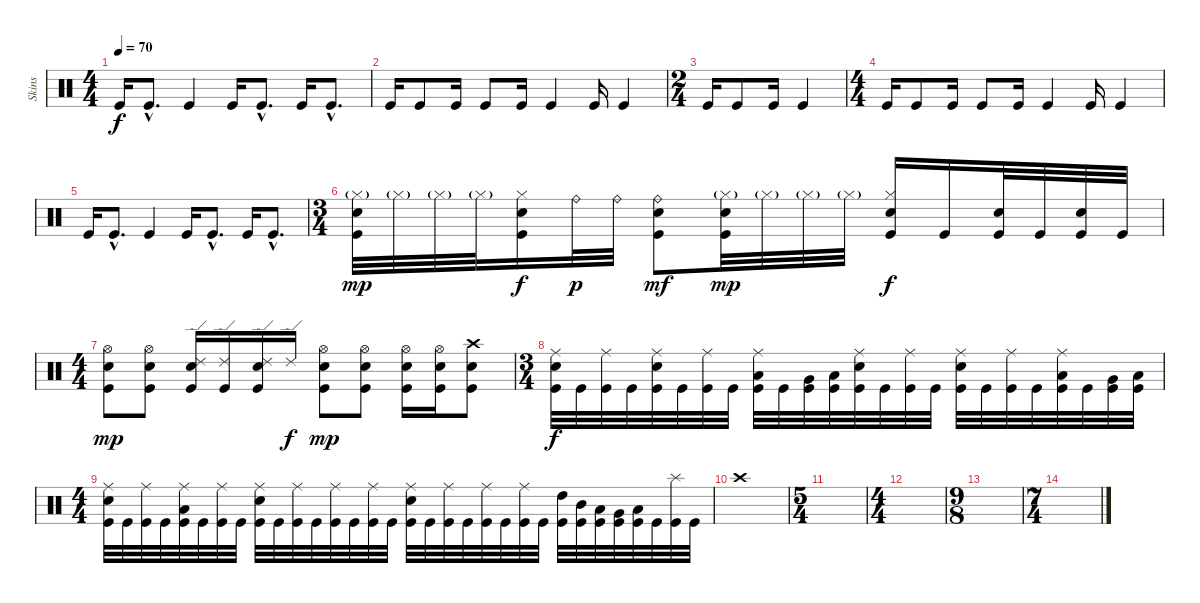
\track ("Skins" "Skins") {instrument percussion}
\staff {score}
\articulation defaults
\ts (4 4)
\tempo 70
\clef neutral
\ks c "Kick (hit)".16{dy f} "Kick (hit)"{hac}.8{d} "Kick (hit)".4 "Kick (hit)".16 "Kick (hit)"{hac}.8{d} "Kick (hit)".16 "Kick (hit)"{hac}.8{d}
|
"Kick (hit)".16 "Kick (hit)".8 "Kick (hit)".16 "Kick (hit)".8 "Kick (hit)".16 "Kick (hit)".4 "Kick (hit)".16 "Kick (hit)".4 |
\ts (2 4)
"Kick (hit)".16 "Kick (hit)".8 "Kick (hit)".16 "Kick (hit)".4 |
\ts (4 4)
"Kick (hit)".16 "Kick (hit)".8 "Kick (hit)".16 "Kick (hit)".8 "Kick (hit)".16 "Kick (hit)".4 "Kick (hit)".16 "Kick (hit)".4 |
"Kick (hit)".16 "Kick (hit)"{hac}.8{d} "Kick (hit)".4 "Kick (hit)".16 "Kick (hit)"{hac}.8{d} "Kick (hit)".16 "Kick (hit)"{hac}.8{d} |
\ts (3 4)
("Hi-Hat (closed)"{g} "Snare (hit) 2" "Kick (hit)").32{dy mp} "Hi-Hat (closed)"{g}.32 "Hi-Hat (closed)"{g}.32 "Hi-Hat (closed)"{g}.32 ("Hi-Hat (closed)" "Snare (hit) 2" "Kick (hit)").16{dy f} "Ride (bell)".32{dy p} "Ride (bell)".32 ("Ride (bell)" "Snare (hit) 2" "Kick (hit)").8{dy mf} ("Hi-Hat (closed)"{g} "Snare (hit) 2" "Kick (hit)").32{dy mp} "Hi-Hat (closed)"{g}.32 "Hi-Hat (closed)"{g}.32 "Hi-Hat (closed)"{g}.32 ("Hi-Hat (closed)" "Snare (hit) 2" "Kick (hit)").16{dy f} "Kick (hit)".16 ("Snare (hit) 2" "Kick (hit)").32 "Kick (hit)".32 ("Snare (hit) 2" "Kick (hit)").32 "Kick (hit)".32 |
\ts (4 4)
("Hi-Hat (open)" "Snare (hit) 2" "Kick (hit)").8{dy mp} ("Hi-Hat (open)" "Snare (hit) 2" "Kick (hit)").8 ("Ride (edge) 2" "Electric Snare (hit)" "Kick (hit)").16 ("Ride (edge) 2" "Kick (hit)").16 ("Ride (edge) 2" "Electric Snare (hit)" "Kick (hit)").16 "Ride (edge) 2".16{dy f} ("Hi-Hat (open)" "Snare (hit) 2" "Kick (hit)").8{dy mp} ("Hi-Hat (open)" "Snare (hit) 2" "Kick (hit)").8 ("Hi-Hat (open)" "Snare (hit) 2" "Kick (hit)").16 ("Hi-Hat (open)" "Snare (hit) 2" "Kick (hit)").16 ("Crash high (hit)" "Electric Snare (hit)" "Kick (hit)").8 |
\ts (3 4)
("Ride (middle)" "Snare (hit) 2" "Kick (hit)").32{dy f} "Kick (hit)".32 ("Ride (middle)" "Kick (hit)").32 "Kick (hit)".32 ("Ride (middle)" "Snare (hit) 2" "Kick (hit)").32 "Kick (hit)".32 ("Ride (middle)" "Kick (hit)").32 "Kick (hit)".32 ("Ride (middle)" "Low Tom (hit)" "Kick (hit)").32 "Kick (hit)".32 ("Very Low Tom (hit)" "Kick (hit)").32 ("Low Floor Tom (hit)" "Kick (hit)").32 ("Ride (middle)" "Snare (hit) 2" "Kick (hit)").32 "Kick (hit)".32 ("Ride (middle)" "Kick (hit)").32 "Kick (hit)".32 ("Ride (middle)" "Snare (hit) 2" "Kick (hit)").32 "Kick (hit)".32 ("Ride (middle)" "Kick (hit)").32 "Kick (hit)".32 ("Ride (middle)" "Low Tom (hit)" "Kick (hit)").32 "Kick (hit)".32 ("Very Low Tom (hit)" "Kick (hit)").32 ("Low Floor Tom (hit)" "Kick (hit)").32 |
\ts (4 4)
("Ride (middle)" "Electric Snare (hit)" "Kick (hit)").32 "Kick (hit)".32 ("Ride (middle)" "Kick (hit)").32 "Kick (hit)".32 ("Ride (middle)" "Low Floor Tom (hit)" "Kick (hit)").32 "Kick (hit)".32 ("Ride (middle)" "Kick (hit)").32 "Kick (hit)".32 ("Ride (middle)" "Electric Snare (hit)" "Kick (hit)").32 "Kick (hit)".32 ("Ride (middle)" "Kick (hit)").32 "Kick (hit)".32 ("Ride (middle)" "Kick (hit)").32 "Kick (hit)".32 ("Ride (middle)" "Kick (hit)").32 "Kick (hit)".32 ("Ride (middle)" "Electric Snare (hit)" "Kick (hit)").32 "Kick (hit)".32 ("Ride (middle)" "Kick (hit)").32 "Kick (hit)".32 ("Ride (middle)" "Kick (hit)").32 "Kick (hit)".32 ("Ride (middle)" "Kick (hit)").32 "Kick (hit)".32 ("High Tom (hit)" "Kick (hit)").32 ("Mid Tom (hit)" "Kick (hit)").32 ("Low Tom (hit)" "Kick (hit)").32 ("Very Low Tom (hit)" "Kick (hit)").32 ("Low Floor Tom (hit)" "Kick (hit)").32 "Kick (hit)".32 ("Splash (hit)" "Kick (hit)").32 "Kick (hit)".32 |
"Crash high (hit)".1 |
\ts (5 4)
|
\ts (4 4)
|
\ts (9 8)
|
\ts (7 4)
